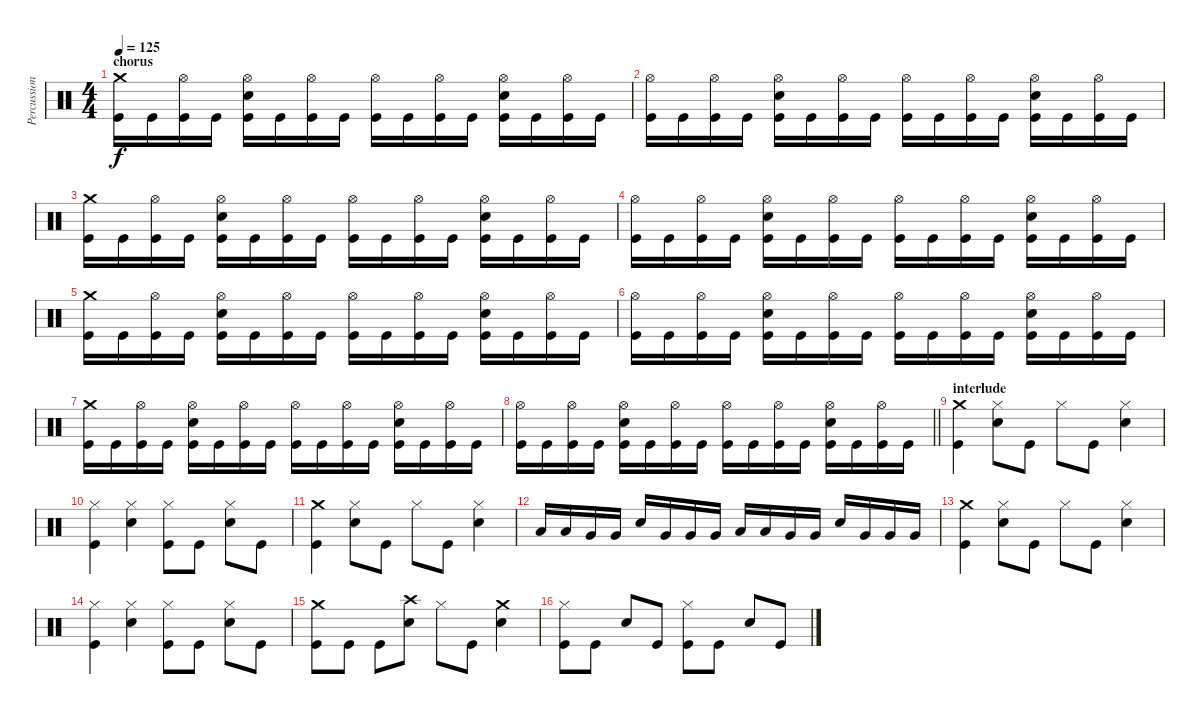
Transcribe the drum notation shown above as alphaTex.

\track ("Percussion" "Percussion") {instrument percussion}
\staff {score}
\articulation defaults
\ts (4 4)
\section ("" "chorus")
\tempo 125
\clef neutral
\ks c
("Crash medium (hit)" "Kick (hit)").16{dy f} "Kick (hit)".16 ("Hi-Hat (open)" "Kick (hit)").16 "Kick (hit)".16 ("Hi-Hat (open)" "Electric Snare (hit)" "Kick (hit)").16 "Kick (hit)".16 ("Hi-Hat (open)" "Kick (hit)").16 "Kick (hit)".16 ("Hi-Hat (open)" "Kick (hit)").16 "Kick (hit)".16 ("Hi-Hat (open)" "Kick (hit)").16 "Kick (hit)".16 ("Hi-Hat (open)" "Electric Snare (hit)" "Kick (hit)").16 "Kick (hit)".16 ("Hi-Hat (open)" "Kick (hit)").16 "Kick (hit)".16 |
("Hi-Hat (open)" "Kick (hit)").16 "Kick (hit)".16 ("Hi-Hat (open)" "Kick (hit)").16 "Kick (hit)".16 ("Hi-Hat (open)" "Electric Snare (hit)" "Kick (hit)").16 "Kick (hit)".16 ("Hi-Hat (open)" "Kick (hit)").16 "Kick (hit)".16 ("Hi-Hat (open)" "Kick (hit)").16 "Kick (hit)".16 ("Hi-Hat (open)" "Kick (hit)").16 "Kick (hit)".16 ("Hi-Hat (open)" "Electric Snare (hit)" "Kick (hit)").16 "Kick (hit)".16 ("Hi-Hat (open)" "Kick (hit)").16 "Kick (hit)".16 |
("Crash medium (hit)" "Kick (hit)").16 "Kick (hit)".16 ("Hi-Hat (open)" "Kick (hit)").16 "Kick (hit)".16 ("Hi-Hat (open)" "Electric Snare (hit)" "Kick (hit)").16 "Kick (hit)".16 ("Hi-Hat (open)" "Kick (hit)").16 "Kick (hit)".16 ("Hi-Hat (open)" "Kick (hit)").16 "Kick (hit)".16 ("Hi-Hat (open)" "Kick (hit)").16 "Kick (hit)".16 ("Hi-Hat (open)" "Electric Snare (hit)" "Kick (hit)").16 "Kick (hit)".16 ("Hi-Hat (open)" "Kick (hit)").16 "Kick (hit)".16 |
("Hi-Hat (open)" "Kick (hit)").16 "Kick (hit)".16 ("Hi-Hat (open)" "Kick (hit)").16 "Kick (hit)".16 ("Hi-Hat (open)" "Electric Snare (hit)" "Kick (hit)").16 "Kick (hit)".16 ("Hi-Hat (open)" "Kick (hit)").16 "Kick (hit)".16 ("Hi-Hat (open)" "Kick (hit)").16 "Kick (hit)".16 ("Hi-Hat (open)" "Kick (hit)").16 "Kick (hit)".16 ("Hi-Hat (open)" "Electric Snare (hit)" "Kick (hit)").16 "Kick (hit)".16 ("Hi-Hat (open)" "Kick (hit)").16 "Kick (hit)".16 |
("Crash medium (hit)" "Kick (hit)").16 "Kick (hit)".16 ("Hi-Hat (open)" "Kick (hit)").16 "Kick (hit)".16 ("Hi-Hat (open)" "Electric Snare (hit)" "Kick (hit)").16 "Kick (hit)".16 ("Hi-Hat (open)" "Kick (hit)").16 "Kick (hit)".16 ("Hi-Hat (open)" "Kick (hit)").16 "Kick (hit)".16 ("Hi-Hat (open)" "Kick (hit)").16 "Kick (hit)".16 ("Hi-Hat (open)" "Electric Snare (hit)" "Kick (hit)").16 "Kick (hit)".16 ("Hi-Hat (open)" "Kick (hit)").16 "Kick (hit)".16 |
("Hi-Hat (open)" "Kick (hit)").16 "Kick (hit)".16 ("Hi-Hat (open)" "Kick (hit)").16 "Kick (hit)".16 ("Hi-Hat (open)" "Electric Snare (hit)" "Kick (hit)").16 "Kick (hit)".16 ("Hi-Hat (open)" "Kick (hit)").16 "Kick (hit)".16 ("Hi-Hat (open)" "Kick (hit)").16 "Kick (hit)".16 ("Hi-Hat (open)" "Kick (hit)").16 "Kick (hit)".16 ("Hi-Hat (open)" "Electric Snare (hit)" "Kick (hit)").16 "Kick (hit)".16 ("Hi-Hat (open)" "Kick (hit)").16 "Kick (hit)".16 |
("Crash medium (hit)" "Kick (hit)").16 "Kick (hit)".16 ("Hi-Hat (open)" "Kick (hit)").16 "Kick (hit)".16 ("Hi-Hat (open)" "Electric Snare (hit)" "Kick (hit)").16 "Kick (hit)".16 ("Hi-Hat (open)" "Kick (hit)").16 "Kick (hit)".16 ("Hi-Hat (open)" "Kick (hit)").16 "Kick (hit)".16 ("Hi-Hat (open)" "Kick (hit)").16 "Kick (hit)".16 ("Hi-Hat (open)" "Electric Snare (hit)" "Kick (hit)").16 "Kick (hit)".16 ("Hi-Hat (open)" "Kick (hit)").16 "Kick (hit)".16 |
\barLineRight lightlight
("Hi-Hat (open)" "Kick (hit)").16 "Kick (hit)".16 ("Hi-Hat (open)" "Kick (hit)").16 "Kick (hit)".16 ("Hi-Hat (open)" "Electric Snare (hit)" "Kick (hit)").16 "Kick (hit)".16 ("Hi-Hat (open)" "Kick (hit)").16 "Kick (hit)".16 ("Hi-Hat (open)" "Kick (hit)").16 "Kick (hit)".16 ("Hi-Hat (open)" "Kick (hit)").16 "Kick (hit)".16 ("Hi-Hat (open)" "Electric Snare (hit)" "Kick (hit)").16 "Kick (hit)".16 ("Hi-Hat (open)" "Kick (hit)").16 "Kick (hit)".16 |
\section ("" "interlude")
("Crash medium (hit)" "Kick (hit)").4 ("Hi-Hat (closed)" "Electric Snare (hit)").8 "Kick (hit)".8 "Hi-Hat (closed)".8 "Kick (hit)".8 ("Hi-Hat (closed)" "Electric Snare (hit)").4 |
("Hi-Hat (closed)" "Kick (hit)").4 ("Hi-Hat (closed)" "Electric Snare (hit)").4 ("Hi-Hat (closed)" "Kick (hit)").8 "Kick (hit)".8 ("Hi-Hat (closed)" "Electric Snare (hit)").8 "Kick (hit)".8 |
("Crash medium (hit)" "Kick (hit)").4 ("Hi-Hat (closed)" "Electric Snare (hit)").8 "Kick (hit)".8 "Hi-Hat (closed)".8 "Kick (hit)".8 ("Hi-Hat (closed)" "Electric Snare (hit)").4 |
"Low Tom (hit)".16 "Low Tom (hit)".16 "Very Low Tom (hit)".16 "Very Low Tom (hit)".16 "Electric Snare (hit)".16 "Very Low Tom (hit)".16 "Very Low Tom (hit)".16 "Very Low Tom (hit)".16 "Low Tom (hit)".16 "Low Tom (hit)".16 "Very Low Tom (hit)".16 "Very Low Tom (hit)".16 "Electric Snare (hit)".16 "Very Low Tom (hit)".16 "Very Low Tom (hit)".16 "Very Low Tom (hit)".16 |
("Crash medium (hit)" "Kick (hit)").4 ("Hi-Hat (closed)" "Electric Snare (hit)").8 "Kick (hit)".8 "Hi-Hat (closed)".8 "Kick (hit)".8 ("Hi-Hat (closed)" "Electric Snare (hit)").4 |
("Hi-Hat (closed)" "Kick (hit)").4 ("Hi-Hat (closed)" "Electric Snare (hit)").4 ("Hi-Hat (closed)" "Kick (hit)").8 "Kick (hit)".8 ("Hi-Hat (closed)" "Electric Snare (hit)").8 "Kick (hit)".8 |
("Crash medium (hit)" "Kick (hit)").8 "Kick (hit)".8 "Kick (hit)".8 ("Crash high (hit)" "Electric Snare (hit)").8 "Hi-Hat (closed)".8 "Kick (hit)".8 ("Crash medium (hit)" "Electric Snare (hit)").4 |
("Hi-Hat (closed)" "Kick (hit)").8 "Kick (hit)".8 "Electric Snare (hit)".8 "Kick (hit)".8 ("Hi-Hat (closed)" "Kick (hit)").8 "Kick (hit)".8 "Electric Snare (hit)".8 "Kick (hit)".8
